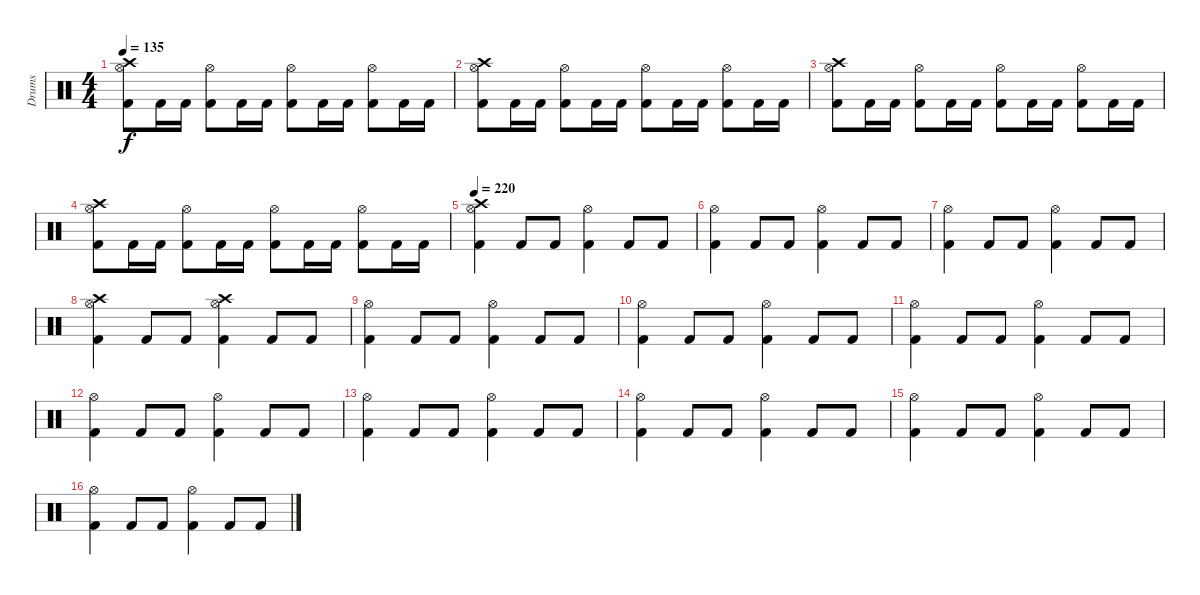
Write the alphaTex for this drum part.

\track ("Drums" "Drums") {instrument percussion}
\staff {score}
\articulation defaults
\ts (4 4)
\tempo 135
\clef neutral
\ks c
("Crash high (hit)" "Hi-Hat (open)" "Kick (hit) 2").8{dy f} "Kick (hit) 2".16 "Kick (hit) 2".16 ("Hi-Hat (open)" "Kick (hit) 2").8 "Kick (hit) 2".16 "Kick (hit) 2".16 ("Hi-Hat (open)" "Kick (hit) 2").8 "Kick (hit) 2".16 "Kick (hit) 2".16 ("Hi-Hat (open)" "Kick (hit) 2").8 "Kick (hit) 2".16 "Kick (hit) 2".16 |
("Crash high (hit)" "Hi-Hat (open)" "Kick (hit) 2").8 "Kick (hit) 2".16 "Kick (hit) 2".16 ("Hi-Hat (open)" "Kick (hit) 2").8 "Kick (hit) 2".16 "Kick (hit) 2".16 ("Hi-Hat (open)" "Kick (hit) 2").8 "Kick (hit) 2".16 "Kick (hit) 2".16 ("Hi-Hat (open)" "Kick (hit) 2").8 "Kick (hit) 2".16 "Kick (hit) 2".16 |
("Crash high (hit)" "Hi-Hat (open)" "Kick (hit) 2").8 "Kick (hit) 2".16 "Kick (hit) 2".16 ("Hi-Hat (open)" "Kick (hit) 2").8 "Kick (hit) 2".16 "Kick (hit) 2".16 ("Hi-Hat (open)" "Kick (hit) 2").8 "Kick (hit) 2".16 "Kick (hit) 2".16 ("Hi-Hat (open)" "Kick (hit) 2").8 "Kick (hit) 2".16 "Kick (hit) 2".16 |
("Crash high (hit)" "Hi-Hat (open)" "Kick (hit) 2").8 "Kick (hit) 2".16 "Kick (hit) 2".16 ("Hi-Hat (open)" "Kick (hit) 2").8 "Kick (hit) 2".16 "Kick (hit) 2".16 ("Hi-Hat (open)" "Kick (hit) 2").8 "Kick (hit) 2".16 "Kick (hit) 2".16 ("Hi-Hat (open)" "Kick (hit) 2").8 "Kick (hit) 2".16 "Kick (hit) 2".16 |
\tempo 220
("Crash high (hit)" "Hi-Hat (open)" "Kick (hit) 2").4 "Kick (hit) 2".8 "Kick (hit) 2".8 ("Hi-Hat (open)" "Kick (hit) 2").4 "Kick (hit) 2".8 "Kick (hit) 2".8 |
("Hi-Hat (open)" "Kick (hit) 2").4 "Kick (hit) 2".8 "Kick (hit) 2".8 ("Hi-Hat (open)" "Kick (hit) 2").4 "Kick (hit) 2".8 "Kick (hit) 2".8 |
("Hi-Hat (open)" "Kick (hit) 2").4 "Kick (hit) 2".8 "Kick (hit) 2".8 ("Hi-Hat (open)" "Kick (hit) 2").4 "Kick (hit) 2".8 "Kick (hit) 2".8 |
("Crash high (hit)" "Hi-Hat (open)" "Kick (hit) 2").4 "Kick (hit) 2".8 "Kick (hit) 2".8 ("Crash high (hit)" "Hi-Hat (open)" "Kick (hit) 2").4 "Kick (hit) 2".8 "Kick (hit) 2".8 |
("Hi-Hat (open)" "Kick (hit) 2").4 "Kick (hit) 2".8 "Kick (hit) 2".8 ("Hi-Hat (open)" "Kick (hit) 2").4 "Kick (hit) 2".8 "Kick (hit) 2".8 |
("Hi-Hat (open)" "Kick (hit) 2").4 "Kick (hit) 2".8 "Kick (hit) 2".8 ("Hi-Hat (open)" "Kick (hit) 2").4 "Kick (hit) 2".8 "Kick (hit) 2".8 |
("Hi-Hat (open)" "Kick (hit) 2").4 "Kick (hit) 2".8 "Kick (hit) 2".8 ("Hi-Hat (open)" "Kick (hit) 2").4 "Kick (hit) 2".8 "Kick (hit) 2".8 |
("Hi-Hat (open)" "Kick (hit) 2").4 "Kick (hit) 2".8 "Kick (hit) 2".8 ("Hi-Hat (open)" "Kick (hit) 2").4 "Kick (hit) 2".8 "Kick (hit) 2".8 |
("Hi-Hat (open)" "Kick (hit) 2").4 "Kick (hit) 2".8 "Kick (hit) 2".8 ("Hi-Hat (open)" "Kick (hit) 2").4 "Kick (hit) 2".8 "Kick (hit) 2".8 |
("Hi-Hat (open)" "Kick (hit) 2").4 "Kick (hit) 2".8 "Kick (hit) 2".8 ("Hi-Hat (open)" "Kick (hit) 2").4 "Kick (hit) 2".8 "Kick (hit) 2".8 |
("Hi-Hat (open)" "Kick (hit) 2").4 "Kick (hit) 2".8 "Kick (hit) 2".8 ("Hi-Hat (open)" "Kick (hit) 2").4 "Kick (hit) 2".8 "Kick (hit) 2".8 |
("Hi-Hat (open)" "Kick (hit) 2").4 "Kick (hit) 2".8 "Kick (hit) 2".8 ("Hi-Hat (open)" "Kick (hit) 2").4 "Kick (hit) 2".8 "Kick (hit) 2".8
